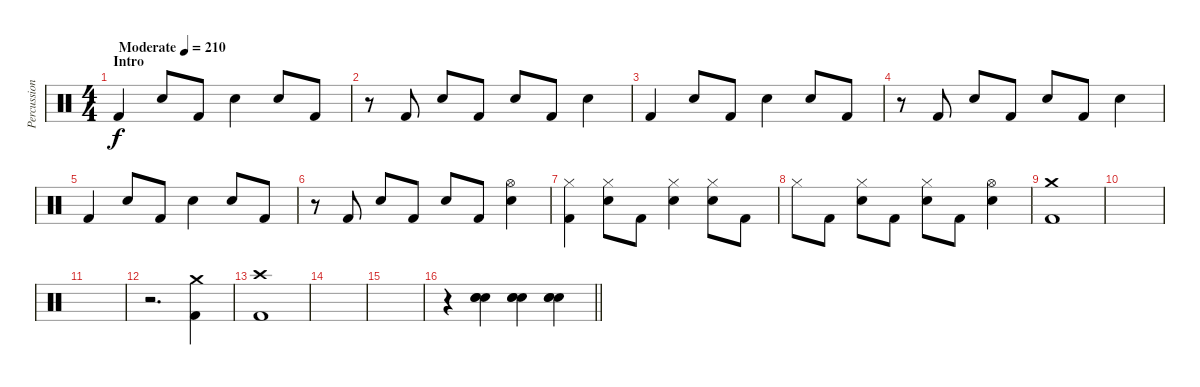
\track ("Percussion" "Percussion") {instrument percussion}
\staff {score}
\articulation defaults
\ts (4 4)
\section ("" "Intro")
\tempo (210 "Moderate")
\clef neutral
\ks c "Kick (hit) 2".4{dy f volume 8} "Electric Snare (hit)".8 "Kick (hit) 2".8 "Electric Snare (hit)".4 "Electric Snare (hit)".8 "Kick (hit) 2".8
|
r.8 "Kick (hit) 2".8 "Electric Snare (hit)".8 "Kick (hit) 2".8 "Electric Snare (hit)".8 "Kick (hit) 2".8 "Electric Snare (hit)".4 |
"Kick (hit) 2".4 "Electric Snare (hit)".8 "Kick (hit) 2".8 "Electric Snare (hit)".4 "Electric Snare (hit)".8 "Kick (hit) 2".8 |
r.8 "Kick (hit) 2".8 "Electric Snare (hit)".8 "Kick (hit) 2".8 "Electric Snare (hit)".8 "Kick (hit) 2".8 "Electric Snare (hit)".4 |
"Kick (hit) 2".4{volume 16} "Electric Snare (hit)".8 "Kick (hit) 2".8 "Electric Snare (hit)".4 "Electric Snare (hit)".8 "Kick (hit) 2".8 |
r.8 "Kick (hit) 2".8 "Electric Snare (hit)".8 "Kick (hit) 2".8 "Electric Snare (hit)".8 "Kick (hit) 2".8 ("Hi-Hat (open)" "Electric Snare (hit)").4 |
("Hi-Hat (closed)" "Kick (hit) 2").4 ("Hi-Hat (closed)" "Electric Snare (hit)").8 "Kick (hit) 2".8 ("Hi-Hat (closed)" "Electric Snare (hit)").4 ("Hi-Hat (closed)" "Electric Snare (hit)").8 "Kick (hit) 2".8 |
"Hi-Hat (closed)".8 "Kick (hit) 2".8 ("Hi-Hat (closed)" "Electric Snare (hit)").8 "Kick (hit) 2".8 ("Hi-Hat (closed)" "Electric Snare (hit)").8 "Kick (hit) 2".8 ("Hi-Hat (open)" "Electric Snare (hit)").4 |
("Crash medium (hit)" "Kick (hit) 2").1 |
|
|
r.2{d} ("Crash medium (hit)" "Kick (hit) 2").4 |
("Crash high (hit)" "Kick (hit) 2").1 |
|
|
\barLineRight lightlight
r.4 ("Hand Clap (hit)" "Hand Clap (hit)" "Hand Clap (hit)").4 ("Hand Clap (hit)" "Hand Clap (hit)" "Hand Clap (hit)").4 ("Hand Clap (hit)" "Hand Clap (hit)" "Hand Clap (hit)").4
